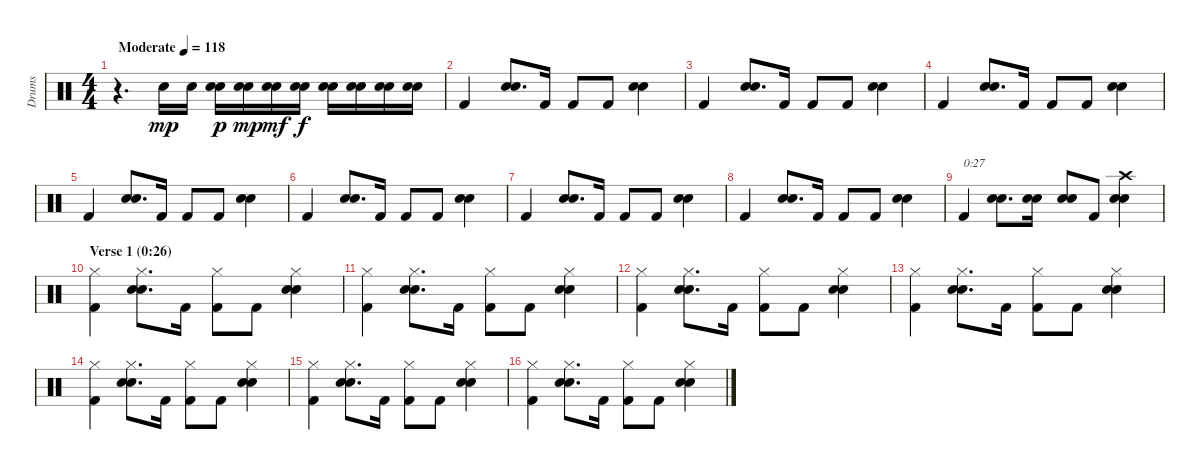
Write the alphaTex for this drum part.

\track ("Drums" "Drums") {instrument percussion}
\staff {score}
\articulation defaults
\ts (4 4)
\tempo (118 "Moderate")
\clef neutral
\ks c
r.4{d dy mp} "Electric Snare (hit)".16 "Electric Snare (hit)".16 ("Electric Snare (hit)" "Snare (hit) 2").16{dy p} ("Electric Snare (hit)" "Snare (hit) 2").16{dy mp} ("Electric Snare (hit)" "Snare (hit) 2").16{dy mf} ("Electric Snare (hit)" "Snare (hit) 2").16{dy f} ("Electric Snare (hit)" "Snare (hit) 2").16 ("Electric Snare (hit)" "Snare (hit) 2").16 ("Electric Snare (hit)" "Snare (hit) 2").16 ("Electric Snare (hit)" "Snare (hit) 2").16 |
"Kick (hit) 2".4 ("Electric Snare (hit)" "Snare (hit) 2").8{d} "Kick (hit) 2".16 "Kick (hit) 2".8 "Kick (hit) 2".8 ("Electric Snare (hit)" "Snare (hit) 2").4 |
"Kick (hit) 2".4 ("Electric Snare (hit)" "Snare (hit) 2").8{d} "Kick (hit) 2".16 "Kick (hit) 2".8 "Kick (hit) 2".8 ("Electric Snare (hit)" "Snare (hit) 2").4 |
"Kick (hit) 2".4 ("Electric Snare (hit)" "Snare (hit) 2").8{d} "Kick (hit) 2".16 "Kick (hit) 2".8 "Kick (hit) 2".8 ("Electric Snare (hit)" "Snare (hit) 2").4 |
"Kick (hit) 2".4 ("Electric Snare (hit)" "Snare (hit) 2").8{d} "Kick (hit) 2".16 "Kick (hit) 2".8 "Kick (hit) 2".8 ("Electric Snare (hit)" "Snare (hit) 2").4 |
"Kick (hit) 2".4 ("Electric Snare (hit)" "Snare (hit) 2").8{d} "Kick (hit) 2".16 "Kick (hit) 2".8 "Kick (hit) 2".8 ("Electric Snare (hit)" "Snare (hit) 2").4 |
"Kick (hit) 2".4 ("Electric Snare (hit)" "Snare (hit) 2").8{d} "Kick (hit) 2".16 "Kick (hit) 2".8 "Kick (hit) 2".8 ("Electric Snare (hit)" "Snare (hit) 2").4 |
"Kick (hit) 2".4 ("Electric Snare (hit)" "Snare (hit) 2").8{d} "Kick (hit) 2".16 "Kick (hit) 2".8 "Kick (hit) 2".8 ("Electric Snare (hit)" "Snare (hit) 2").4 |
"Kick (hit) 2".4{txt "0:27"} ("Electric Snare (hit)" "Snare (hit) 2").8{d} ("Electric Snare (hit)" "Snare (hit) 2").16 ("Electric Snare (hit)" "Snare (hit) 2").8 "Kick (hit) 2".8 ("Crash high (hit)" "Electric Snare (hit)" "Snare (hit) 2").4 |
\section ("" "Verse 1 (0:26)")
("Hi-Hat (closed)" "Kick (hit) 2").4 ("Hi-Hat (closed)" "Electric Snare (hit)" "Snare (hit) 2").8{d} "Kick (hit) 2".16 ("Hi-Hat (closed)" "Kick (hit) 2").8 "Kick (hit) 2".8 ("Hi-Hat (closed)" "Electric Snare (hit)" "Snare (hit) 2").4 |
("Hi-Hat (closed)" "Kick (hit) 2").4 ("Hi-Hat (closed)" "Electric Snare (hit)" "Snare (hit) 2").8{d} "Kick (hit) 2".16 ("Hi-Hat (closed)" "Kick (hit) 2").8 "Kick (hit) 2".8 ("Hi-Hat (closed)" "Electric Snare (hit)" "Snare (hit) 2").4 |
("Hi-Hat (closed)" "Kick (hit) 2").4 ("Hi-Hat (closed)" "Electric Snare (hit)" "Snare (hit) 2").8{d} "Kick (hit) 2".16 ("Hi-Hat (closed)" "Kick (hit) 2").8 "Kick (hit) 2".8 ("Hi-Hat (closed)" "Electric Snare (hit)" "Snare (hit) 2").4 |
("Hi-Hat (closed)" "Kick (hit) 2").4 ("Hi-Hat (closed)" "Electric Snare (hit)" "Snare (hit) 2").8{d} "Kick (hit) 2".16 ("Hi-Hat (closed)" "Kick (hit) 2").8 "Kick (hit) 2".8 ("Hi-Hat (closed)" "Electric Snare (hit)" "Snare (hit) 2").4 |
("Hi-Hat (closed)" "Kick (hit) 2").4 ("Hi-Hat (closed)" "Electric Snare (hit)" "Snare (hit) 2").8{d} "Kick (hit) 2".16 ("Hi-Hat (closed)" "Kick (hit) 2").8 "Kick (hit) 2".8 ("Hi-Hat (closed)" "Electric Snare (hit)" "Snare (hit) 2").4 |
("Hi-Hat (closed)" "Kick (hit) 2").4 ("Hi-Hat (closed)" "Electric Snare (hit)" "Snare (hit) 2").8{d} "Kick (hit) 2".16 ("Hi-Hat (closed)" "Kick (hit) 2").8 "Kick (hit) 2".8 ("Hi-Hat (closed)" "Electric Snare (hit)" "Snare (hit) 2").4 |
("Hi-Hat (closed)" "Kick (hit) 2").4 ("Hi-Hat (closed)" "Electric Snare (hit)" "Snare (hit) 2").8{d} "Kick (hit) 2".16 ("Hi-Hat (closed)" "Kick (hit) 2").8 "Kick (hit) 2".8 ("Hi-Hat (closed)" "Electric Snare (hit)" "Snare (hit) 2").4
